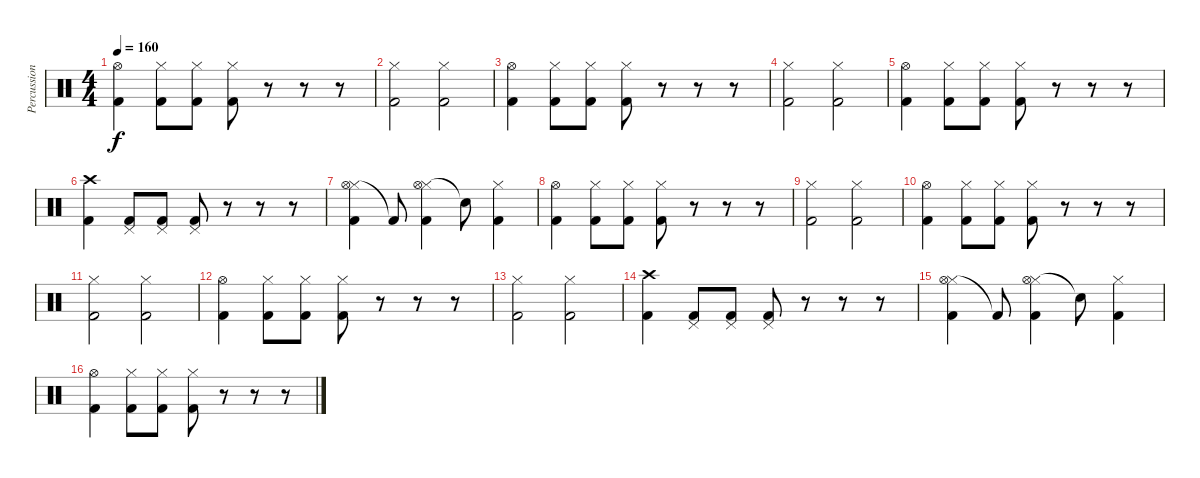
\track ("Percussion" "Percussion") {instrument percussion}
\staff {score}
\articulation defaults
\ts (4 4)
\tempo 160
\clef neutral
\ks c
("Hi-Hat (open)" "Kick (hit) 2").4{dy f} ("Hi-Hat (closed)" "Kick (hit) 2").8 ("Hi-Hat (closed)" "Kick (hit) 2").8 ("Hi-Hat (closed)" "Kick (hit) 2").8 r.8 r.8 r.8 |
("Hi-Hat (closed)" "Kick (hit) 2").2 ("Hi-Hat (closed)" "Kick (hit) 2").2 |
("Hi-Hat (open)" "Kick (hit) 2").4 ("Hi-Hat (closed)" "Kick (hit) 2").8 ("Hi-Hat (closed)" "Kick (hit) 2").8 ("Hi-Hat (closed)" "Kick (hit) 2").8 r.8 r.8 r.8 |
("Hi-Hat (closed)" "Kick (hit) 2").2 ("Hi-Hat (closed)" "Kick (hit) 2").2 |
("Hi-Hat (open)" "Kick (hit) 2").4 ("Hi-Hat (closed)" "Kick (hit) 2").8 ("Hi-Hat (closed)" "Kick (hit) 2").8 ("Hi-Hat (closed)" "Kick (hit) 2").8 r.8 r.8 r.8 |
("Crash high (hit)" "Kick (hit) 2").4 ("Pedal Hi-Hat (hit)" "Kick (hit) 2").8 ("Pedal Hi-Hat (hit)" "Kick (hit) 2").8 ("Pedal Hi-Hat (hit)" "Kick (hit) 2").8 r.8 r.8 r.8 |
("Hi-Hat (closed)" "Hi-Hat (open)" "Kick (hit) 2").4 "Kick (hit) 2"{t}.8 ("Hi-Hat (closed)" "Hi-Hat (open)" "Kick (hit) 2").4 "Snare (hit)"{t}.8 ("Hi-Hat (closed)" "Kick (hit) 2").4 |
("Hi-Hat (open)" "Kick (hit) 2").4 ("Hi-Hat (closed)" "Kick (hit) 2").8 ("Hi-Hat (closed)" "Kick (hit) 2").8 ("Hi-Hat (closed)" "Kick (hit) 2").8 r.8 r.8 r.8 |
("Hi-Hat (closed)" "Kick (hit) 2").2 ("Hi-Hat (closed)" "Kick (hit) 2").2 |
("Hi-Hat (open)" "Kick (hit) 2").4 ("Hi-Hat (closed)" "Kick (hit) 2").8 ("Hi-Hat (closed)" "Kick (hit) 2").8 ("Hi-Hat (closed)" "Kick (hit) 2").8 r.8 r.8 r.8 |
("Hi-Hat (closed)" "Kick (hit) 2").2 ("Hi-Hat (closed)" "Kick (hit) 2").2 |
("Hi-Hat (open)" "Kick (hit) 2").4 ("Hi-Hat (closed)" "Kick (hit) 2").8 ("Hi-Hat (closed)" "Kick (hit) 2").8 ("Hi-Hat (closed)" "Kick (hit) 2").8 r.8 r.8 r.8 |
("Hi-Hat (closed)" "Kick (hit) 2").2 ("Hi-Hat (closed)" "Kick (hit) 2").2 |
("Crash high (hit)" "Kick (hit) 2").4 ("Pedal Hi-Hat (hit)" "Kick (hit) 2").8 ("Pedal Hi-Hat (hit)" "Kick (hit) 2").8 ("Pedal Hi-Hat (hit)" "Kick (hit) 2").8 r.8 r.8 r.8 |
("Hi-Hat (closed)" "Hi-Hat (open)" "Kick (hit) 2").4 "Kick (hit) 2"{t}.8 ("Hi-Hat (closed)" "Hi-Hat (open)" "Kick (hit) 2").4 "Snare (hit)"{t}.8 ("Hi-Hat (closed)" "Kick (hit) 2").4 |
("Hi-Hat (open)" "Kick (hit) 2").4 ("Hi-Hat (closed)" "Kick (hit) 2").8 ("Hi-Hat (closed)" "Kick (hit) 2").8 ("Hi-Hat (closed)" "Kick (hit) 2").8 r.8 r.8 r.8
